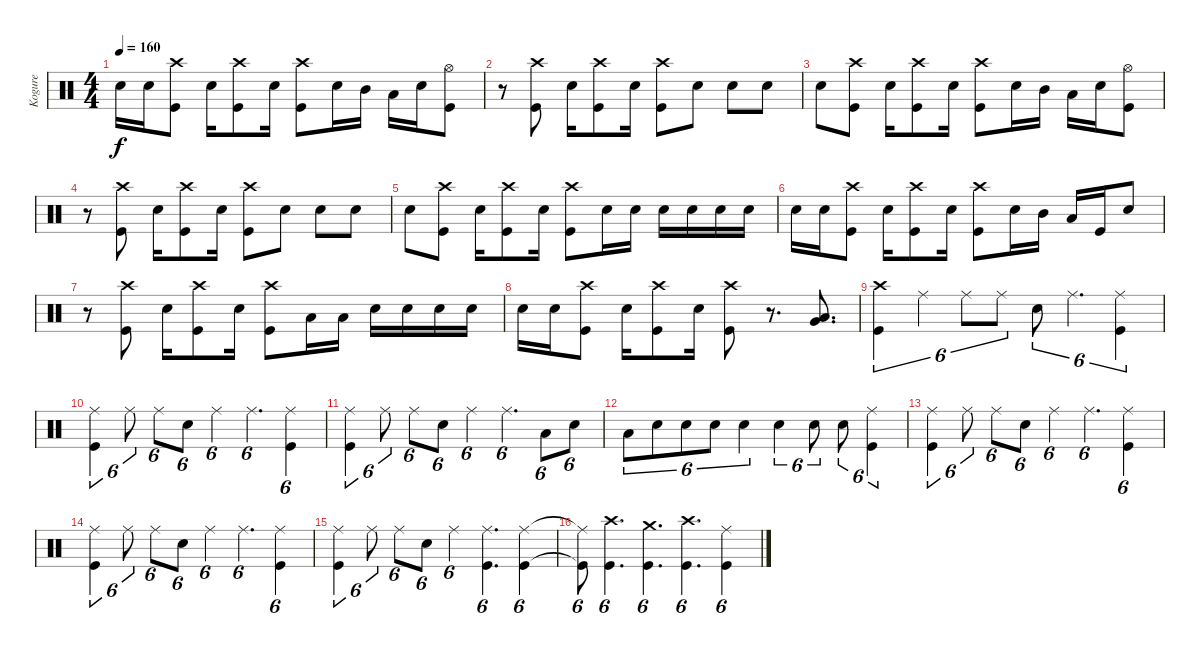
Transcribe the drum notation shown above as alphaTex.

\track ("Kogure" "Kogure") {instrument percussion}
\staff {score}
\articulation defaults
\ts (4 4)
\tempo 160
\clef neutral
\ks c "Snare (hit) 2".16{dy f} "Snare (hit) 2".16
("Crash high (hit)" "Kick (hit)").8 "Snare (hit) 2".16 ("Crash high (hit)" "Kick (hit)").8 "Snare (hit) 2".16 ("Crash high (hit)" "Kick (hit)").8 "Snare (hit) 2".16 "Mid Tom (hit)".16 "Low Tom (hit)".16 "Snare (hit) 2".16 ("Hi-Hat (open)" "Kick (hit)").8 |
r.8 ("Crash high (hit)" "Kick (hit)").8 "Snare (hit) 2".16 ("Crash high (hit)" "Kick (hit)").8 "Snare (hit) 2".16 ("Crash high (hit)" "Kick (hit)").8 "Snare (hit) 2".8 "Snare (hit) 2".8 "Snare (hit) 2".8 |
"Snare (hit) 2".8 ("Crash high (hit)" "Kick (hit)").8 "Snare (hit) 2".16 ("Crash high (hit)" "Kick (hit)").8 "Snare (hit) 2".16 ("Crash high (hit)" "Kick (hit)").8 "Snare (hit) 2".16 "Mid Tom (hit)".16 "Low Tom (hit)".16 "Snare (hit) 2".16 ("Hi-Hat (open)" "Kick (hit)").8 |
r.8 ("Crash high (hit)" "Kick (hit)").8 "Snare (hit) 2".16 ("Crash high (hit)" "Kick (hit)").8 "Snare (hit) 2".16 ("Crash high (hit)" "Kick (hit)").8 "Snare (hit) 2".8 "Snare (hit) 2".8 "Snare (hit) 2".8 |
"Snare (hit) 2".8 ("Crash high (hit)" "Kick (hit)").8 "Snare (hit) 2".16 ("Crash high (hit)" "Kick (hit)").8 "Snare (hit) 2".16 ("Crash high (hit)" "Kick (hit)").8 "Snare (hit) 2".16 "Snare (hit) 2".16 "Snare (hit) 2".16 "Snare (hit) 2".16 "Snare (hit) 2".16 "Snare (hit) 2".16 |
"Snare (hit) 2".16 "Snare (hit) 2".16 ("Crash high (hit)" "Kick (hit)").8 "Snare (hit) 2".16 ("Crash high (hit)" "Kick (hit)").8 "Snare (hit) 2".16 ("Crash high (hit)" "Kick (hit)").8 "Snare (hit) 2".16 "Mid Tom (hit)".16 "Low Tom (hit)".16 "Kick (hit)".16 "Snare (hit) 2".8 |
r.8 ("Crash high (hit)" "Kick (hit)").8 "Snare (hit) 2".16 ("Crash high (hit)" "Kick (hit)").8 "Snare (hit) 2".16 ("Crash high (hit)" "Kick (hit)").8 "Low Tom (hit)".16 "Low Tom (hit)".16 "Snare (hit) 2".16 "Snare (hit) 2".16 "Snare (hit) 2".16 "Snare (hit) 2".16 |
"Snare (hit) 2".16 "Snare (hit) 2".16 ("Crash high (hit)" "Kick (hit)").8 "Snare (hit) 2".16 ("Crash high (hit)" "Kick (hit)").8 "Snare (hit) 2".16 ("Crash high (hit)" "Kick (hit)").8 r.8{d} ("Low Tom (hit)" "Very Low Tom (hit)").8{d} |
("Crash high (hit)" "Kick (hit)").4{tu (6 4)} "Ride (middle)".4{tu (6 4)} "Ride (middle)".8{tu (6 4)} "Ride (middle)".8{tu (6 4)} "Snare (hit) 2".8{tu (6 4)} "Ride (middle)".4{d tu (6 4)} ("Ride (middle)" "Kick (hit)").4{tu (6 4)} |
("Ride (middle)" "Kick (hit)").4{tu (6 4)} "Ride (middle)".8{tu (6 4)} "Ride (middle)".8{tu (6 4)} "Snare (hit) 2".8{tu (6 4)} "Ride (middle)".4{tu (6 4)} "Ride (middle)".4{d tu (6 4)} ("Ride (middle)" "Kick (hit)").4{tu (6 4)} |
("Ride (middle)" "Kick (hit)").4{tu (6 4)} "Ride (middle)".8{tu (6 4)} "Ride (middle)".8{tu (6 4)} "Snare (hit) 2".8{tu (6 4)} "Ride (middle)".4{tu (6 4)} "Ride (middle)".4{d tu (6 4)} "Low Tom (hit)".8{tu (6 4)} "Snare (hit) 2".8{tu (6 4)} |
"Low Tom (hit)".8{tu (6 4)} "Snare (hit) 2".8{tu (6 4)} "Snare (hit) 2".8{tu (6 4)} "Snare (hit) 2".8{tu (6 4)} "Snare (hit) 2".4{tu (6 4)} "Snare (hit) 2".4{tu (6 4)} "Snare (hit) 2".8{tu (6 4)} "Snare (hit) 2".8{tu (6 4)} ("Ride (middle)" "Kick (hit)").4{tu (6 4)} |
("Ride (middle)" "Kick (hit)").4{tu (6 4)} "Ride (middle)".8{tu (6 4)} "Ride (middle)".8{tu (6 4)} "Snare (hit) 2".8{tu (6 4)} "Ride (middle)".4{tu (6 4)} "Ride (middle)".4{d tu (6 4)} ("Ride (middle)" "Kick (hit)").4{tu (6 4)} |
("Ride (middle)" "Kick (hit)").4{tu (6 4)} "Ride (middle)".8{tu (6 4)} "Ride (middle)".8{tu (6 4)} "Snare (hit) 2".8{tu (6 4)} "Ride (middle)".4{tu (6 4)} "Ride (middle)".4{d tu (6 4)} ("Ride (middle)" "Kick (hit)").4{tu (6 4)} |
("Ride (middle)" "Kick (hit)").4{tu (6 4)} "Ride (middle)".8{tu (6 4)} "Ride (middle)".8{tu (6 4)} "Snare (hit) 2".8{tu (6 4)} "Ride (middle)".4{tu (6 4)} ("Ride (middle)" "Kick (hit)").4{d tu (6 4)} ("Ride (middle)" "Kick (hit)").4{tu (6 4)} |
("Ride (middle)"{t} "Kick (hit)"{t}).8{tu (6 4)} ("Crash high (hit)" "Kick (hit)").4{d tu (6 4)} ("Crash medium (hit)" "Kick (hit)").4{d tu (6 4)} ("Crash high (hit)" "Kick (hit)").4{d tu (6 4)} ("Ride (middle)" "Kick (hit)").4{tu (6 4)}
